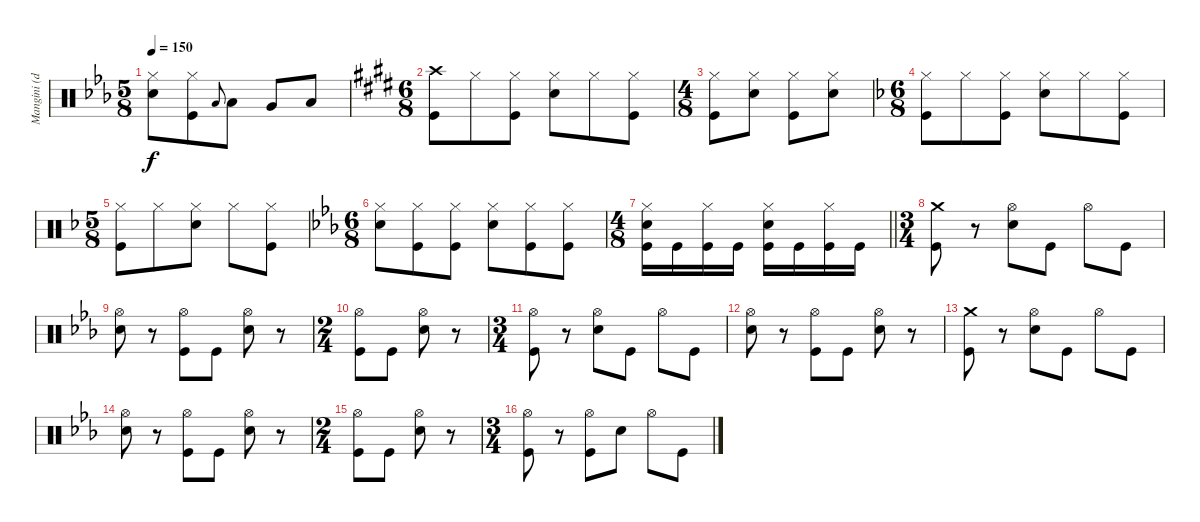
\track ("Mangini (drums)" "Mangini (d") {instrument percussion}
\staff {score}
\articulation defaults
\ts (5 8)
\tempo 150
\clef neutral
\ks cminor
("Hi-Hat (closed)" "Snare (hit) 2").8{dy f} ("Hi-Hat (closed)" "Kick (hit)").8 "Low Tom (hit)".8{gr onbeat} "Low Tom (hit)".8 "Very Low Tom (hit)".8 "Low Floor Tom (hit)".8 |
\ts (6 8)
\ks c#minor
("Crash high (hit)" "Kick (hit)").8 "Hi-Hat (closed)".8 ("Hi-Hat (closed)" "Kick (hit)").8 ("Hi-Hat (closed)" "Snare (hit) 2").8 "Hi-Hat (closed)".8 ("Hi-Hat (closed)" "Kick (hit)").8 |
\ts (4 8)
("Hi-Hat (closed)" "Kick (hit)").8 ("Hi-Hat (closed)" "Snare (hit) 2").8 ("Hi-Hat (closed)" "Kick (hit)").8 ("Hi-Hat (closed)" "Snare (hit) 2").8 |
\ts (6 8)
\ks dminor
("Hi-Hat (closed)" "Kick (hit)").8 "Hi-Hat (closed)".8 ("Hi-Hat (closed)" "Kick (hit)").8 ("Hi-Hat (closed)" "Snare (hit) 2").8 "Hi-Hat (closed)".8 ("Hi-Hat (closed)" "Kick (hit)").8 |
\ts (5 8)
("Hi-Hat (closed)" "Kick (hit)").8 "Hi-Hat (closed)".8 ("Hi-Hat (closed)" "Snare (hit) 2").8 "Hi-Hat (closed)".8 ("Hi-Hat (closed)" "Kick (hit)").8 |
\ts (6 8)
\ks cminor
("Hi-Hat (closed)" "Snare (hit) 2").8 ("Hi-Hat (closed)" "Kick (hit)").8 ("Hi-Hat (closed)" "Kick (hit)").8 ("Hi-Hat (closed)" "Snare (hit) 2").8 ("Hi-Hat (closed)" "Kick (hit)").8 ("Hi-Hat (closed)" "Kick (hit)").8 |
\ts (4 8)
\barLineRight lightlight
("Hi-Hat (closed)" "Snare (hit) 2" "Kick (hit)").16 "Kick (hit)".16 ("Hi-Hat (closed)" "Kick (hit)").16 "Kick (hit)".16 ("Hi-Hat (closed)" "Snare (hit) 2" "Kick (hit)").16 "Kick (hit)".16 ("Hi-Hat (closed)" "Kick (hit)").16 "Kick (hit)".16 |
\ts (3 4)
("Crash medium (hit)" "Kick (hit)").8 r.8 ("Hi-Hat (open)" "Snare (hit) 2").8 "Kick (hit)".8 "Hi-Hat (open)".8 "Kick (hit)".8 |
("Hi-Hat (open)" "Snare (hit) 2").8 r.8 ("Hi-Hat (open)" "Kick (hit)").8 "Kick (hit)".8 ("Hi-Hat (open)" "Snare (hit) 2").8 r.8 |
\ts (2 4)
("Hi-Hat (open)" "Kick (hit)").8 "Kick (hit)".8 ("Hi-Hat (open)" "Snare (hit) 2").8 r.8 |
\ts (3 4)
("Hi-Hat (open)" "Kick (hit)").8 r.8 ("Hi-Hat (open)" "Snare (hit) 2").8 "Kick (hit)".8 "Hi-Hat (open)".8 "Kick (hit)".8 |
("Hi-Hat (open)" "Snare (hit) 2").8 r.8 ("Hi-Hat (open)" "Kick (hit)").8 "Kick (hit)".8 ("Hi-Hat (open)" "Snare (hit) 2").8 r.8 |
("Crash medium (hit)" "Kick (hit)").8 r.8 ("Hi-Hat (open)" "Snare (hit) 2").8 "Kick (hit)".8 "Hi-Hat (open)".8 "Kick (hit)".8 |
("Hi-Hat (open)" "Snare (hit) 2").8 r.8 ("Hi-Hat (open)" "Kick (hit)").8 "Kick (hit)".8 ("Hi-Hat (open)" "Snare (hit) 2").8 r.8 |
\ts (2 4)
("Hi-Hat (open)" "Kick (hit)").8 "Kick (hit)".8 ("Hi-Hat (open)" "Snare (hit) 2").8 r.8 |
\ts (3 4)
("Hi-Hat (open)" "Kick (hit)").8 r.8 ("Hi-Hat (open)" "Kick (hit)").8 "Snare (hit) 2".8 "Hi-Hat (open)".8 "Kick (hit)".8
